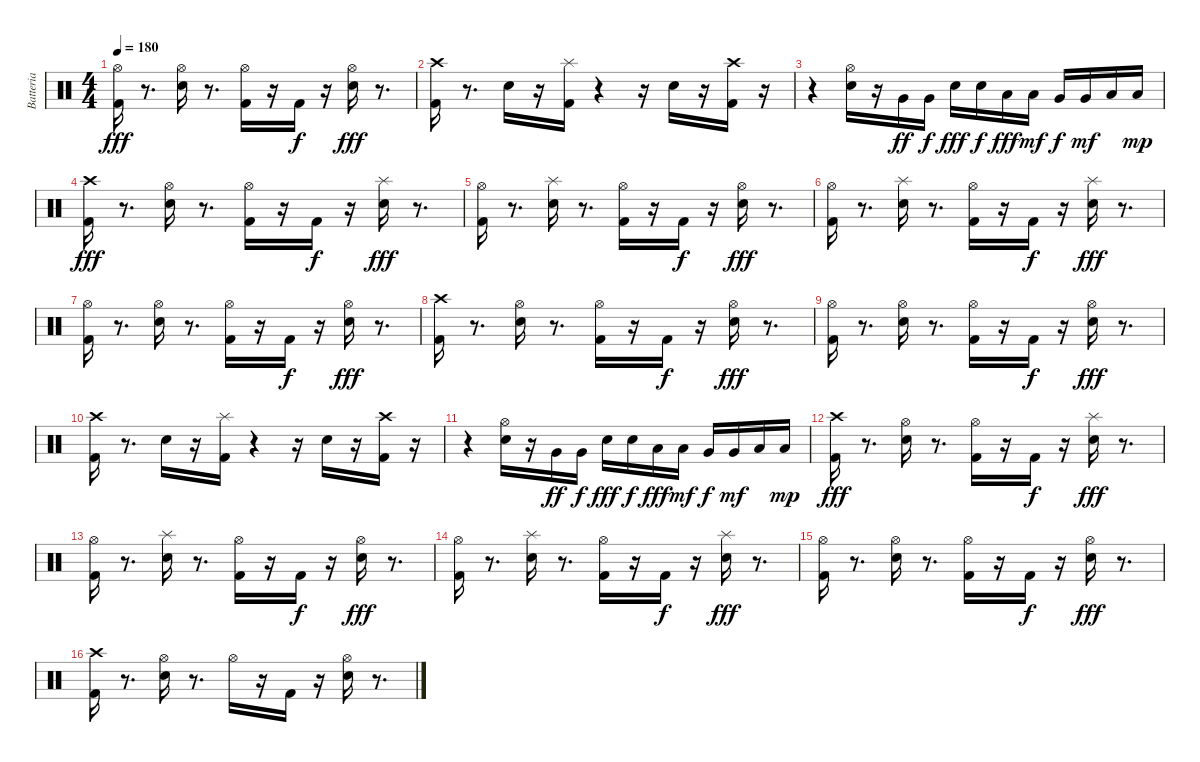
\track ("Batteria" "Batteria") {instrument percussion}
\staff {score}
\articulation defaults
\ts (4 4)
\tempo 180
\clef neutral
\ks c
("Kick (hit) 2" "Hi-Hat (open)").16{dy fff} r.8{d} ("Hi-Hat (open)" "Electric Snare (hit)").16 r.8{d} ("Hi-Hat (open)" "Kick (hit) 2").16 r.16 "Kick (hit) 2".16{dy f} r.16 ("Hi-Hat (open)" "Electric Snare (hit)").16{dy fff} r.8{d} |
("Kick (hit) 2" "Crash high (hit)").16 r.8{d} "Electric Snare (hit)".16 r.16 ("Kick (hit) 2" "Splash (hit)").16 r.4 r.16 "Electric Snare (hit)".16 r.16 ("Kick (hit) 2" "Crash high (hit)").16 r.16 |
r.4 ("Electric Snare (hit)" "Hi-Hat (open)").16 r.16 "Very Low Tom (hit)".16{dy ff} "Very Low Tom (hit)".16{dy f} "Electric Snare (hit)".16{dy fff} "Electric Snare (hit)".16{dy f} "Low Tom (hit)".16{dy fff} "Low Tom (hit)".16{dy mf} "Very Low Tom (hit)".16{dy f} "Very Low Tom (hit)".16{dy mf} "Low Floor Tom (hit)".16 "Low Floor Tom (hit)".16{dy mp} |
("Kick (hit) 2" "Crash high (hit)").16{dy fff} r.8{d} ("Electric Snare (hit)" "Hi-Hat (open)").16 r.8{d} ("Hi-Hat (open)" "Kick (hit) 2").16 r.16 "Kick (hit) 2".16{dy f} r.16 ("Electric Snare (hit)" "Splash (hit)").16{dy fff} r.8{d} |
("Kick (hit) 2" "Hi-Hat (open)").16 r.8{d} ("Electric Snare (hit)" "Splash (hit)").16 r.8{d} ("Hi-Hat (open)" "Kick (hit) 2").16 r.16 "Kick (hit) 2".16{dy f} r.16 ("Electric Snare (hit)" "Hi-Hat (open)").16{dy fff} r.8{d} |
("Kick (hit) 2" "Hi-Hat (open)").16 r.8{d} ("Electric Snare (hit)" "Splash (hit)").16 r.8{d} ("Hi-Hat (open)" "Kick (hit) 2").16 r.16 "Kick (hit) 2".16{dy f} r.16 ("Electric Snare (hit)" "Splash (hit)").16{dy fff} r.8{d} |
("Kick (hit) 2" "Hi-Hat (open)").16 r.8{d} ("Hi-Hat (open)" "Electric Snare (hit)").16 r.8{d} ("Hi-Hat (open)" "Kick (hit) 2").16 r.16 "Kick (hit) 2".16{dy f} r.16 ("Hi-Hat (open)" "Electric Snare (hit)").16{dy fff} r.8{d} |
("Crash high (hit)" "Kick (hit) 2").16 r.8{d} ("Hi-Hat (open)" "Electric Snare (hit)").16 r.8{d} ("Hi-Hat (open)" "Kick (hit) 2").16 r.16 "Kick (hit) 2".16{dy f} r.16 ("Hi-Hat (open)" "Electric Snare (hit)").16{dy fff} r.8{d} |
("Hi-Hat (open)" "Kick (hit) 2").16 r.8{d} ("Hi-Hat (open)" "Electric Snare (hit)").16 r.8{d} ("Kick (hit) 2" "Hi-Hat (open)").16 r.16 "Kick (hit) 2".16{dy f} r.16 ("Hi-Hat (open)" "Electric Snare (hit)").16{dy fff} r.8{d} |
("Crash high (hit)" "Kick (hit) 2").16 r.8{d} "Electric Snare (hit)".16 r.16 ("Splash (hit)" "Kick (hit) 2").16 r.4 r.16 "Electric Snare (hit)".16 r.16 ("Crash high (hit)" "Kick (hit) 2").16 r.16 |
r.4 ("Hi-Hat (open)" "Electric Snare (hit)").16 r.16 "Very Low Tom (hit)".16{dy ff} "Very Low Tom (hit)".16{dy f} "Electric Snare (hit)".16{dy fff} "Electric Snare (hit)".16{dy f} "Low Tom (hit)".16{dy fff} "Low Tom (hit)".16{dy mf} "Very Low Tom (hit)".16{dy f} "Very Low Tom (hit)".16{dy mf} "Low Floor Tom (hit)".16 "Low Floor Tom (hit)".16{dy mp} |
("Crash high (hit)" "Kick (hit) 2").16{dy fff} r.8{d} ("Hi-Hat (open)" "Electric Snare (hit)").16 r.8{d} ("Kick (hit) 2" "Hi-Hat (open)").16 r.16 "Kick (hit) 2".16{dy f} r.16 ("Splash (hit)" "Electric Snare (hit)").16{dy fff} r.8{d} |
("Hi-Hat (open)" "Kick (hit) 2").16 r.8{d} ("Splash (hit)" "Electric Snare (hit)").16 r.8{d} ("Kick (hit) 2" "Hi-Hat (open)").16 r.16 "Kick (hit) 2".16{dy f} r.16 ("Hi-Hat (open)" "Electric Snare (hit)").16{dy fff} r.8{d} |
("Hi-Hat (open)" "Kick (hit) 2").16 r.8{d} ("Splash (hit)" "Electric Snare (hit)").16 r.8{d} ("Kick (hit) 2" "Hi-Hat (open)").16 r.16 "Kick (hit) 2".16{dy f} r.16 ("Splash (hit)" "Electric Snare (hit)").16{dy fff} r.8{d} |
("Hi-Hat (open)" "Kick (hit) 2").16 r.8{d} ("Electric Snare (hit)" "Hi-Hat (open)").16 r.8{d} ("Kick (hit) 2" "Hi-Hat (open)").16 r.16 "Kick (hit) 2".16{dy f} r.16 ("Electric Snare (hit)" "Hi-Hat (open)").16{dy fff} r.8{d} |
("Kick (hit) 2" "Crash high (hit)").16 r.8{d} ("Electric Snare (hit)" "Hi-Hat (open)").16 r.8{d} "Hi-Hat (open)".16 r.16 "Kick (hit) 2".16 r.16 ("Electric Snare (hit)" "Hi-Hat (open)").16 r.8{d}
